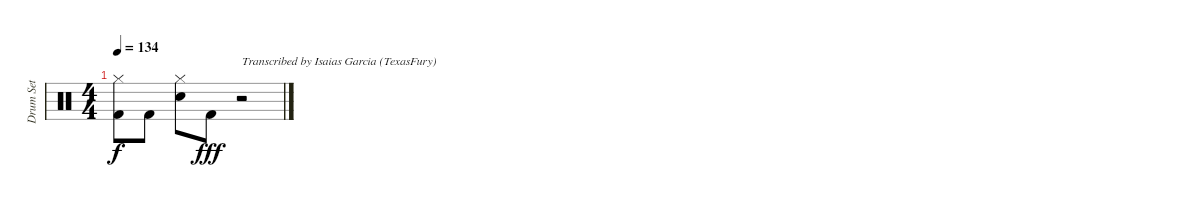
\track ("Drum Set" "Drum Set") {instrument percussion}
\staff {score}
\articulation defaults
\ts (4 4)
\tempo 134
\clef neutral
\ks c
("Hi-Hat (closed)" "Kick (hit) 2").8{dy f} "Kick (hit) 2".8 ("Electric Snare (hit)" "Hi-Hat (closed)").8 "Kick (hit) 2".8{dy fff} r.2{txt "Transcribed by Isaias Garcia (TexasFury)"}
